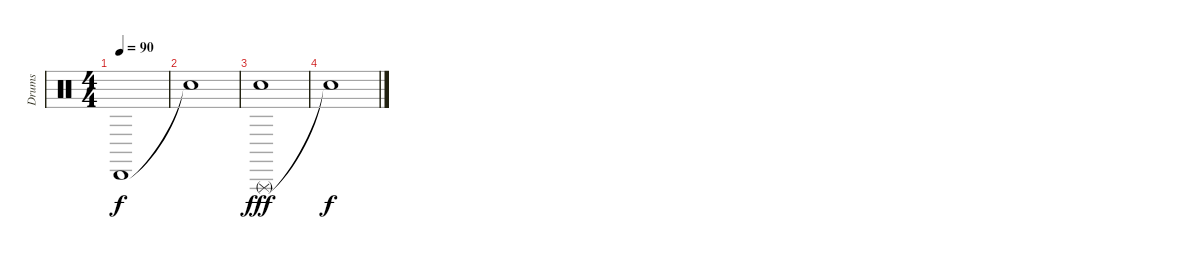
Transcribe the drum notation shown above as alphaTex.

\track ("Drums" "Drums") {instrument percussion}
\staff {score}
\articulation defaults
\ts (4 4)
\tempo 90
\clef neutral
\ks c "Cabasa (hit)".1{dy f}
|
"Snare (hit)"{t}.1 |
("Triangle (rnute)" "Snare (hit)").1{dy fff volume 0} |
"Snare (hit)"{t}.1{dy f}
